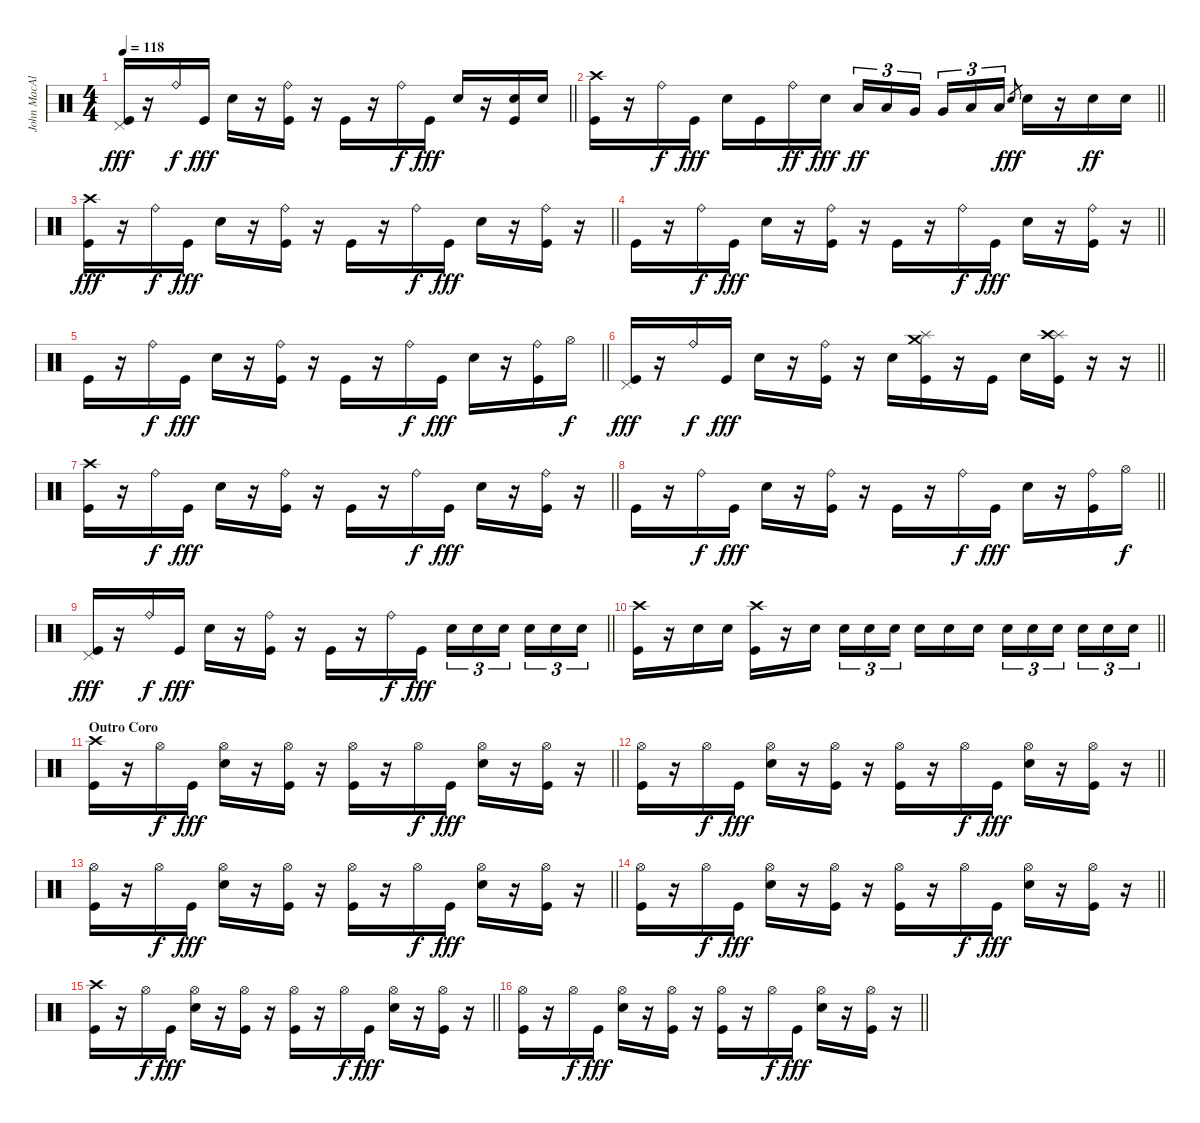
\track ("John MacAluso" "John MacAl") {instrument percussion}
\staff {score}
\articulation defaults
\ts (4 4)
\tempo 118
\clef neutral
\barLineRight lightlight
\ks c
("Pedal Hi-Hat (hit)" "Kick (hit)").16{dy fff} r.16 "Ride (bell)".16{dy f} "Kick (hit)".16{dy fff} "Electric Snare (hit)".16 r.16 ("Ride (bell)" "Kick (hit)").16 r.16 "Kick (hit)".16 r.16 "Ride (bell)".16{dy f} "Kick (hit)".16{dy fff} "Electric Snare (hit)".16 r.16 ("Electric Snare (hit)" "Kick (hit)").16 "Electric Snare (hit)".16 |
\barLineRight lightlight
("Crash high (hit)" "Kick (hit)").16 r.16 "Ride (bell)".16{dy f} "Kick (hit)".16{dy fff} "Electric Snare (hit)".16 "Kick (hit)".16 "Ride (bell)".16{dy ff} "Electric Snare (hit)".16{dy fff} "Low Tom (hit)".16{tu (3 2) dy ff} "Low Tom (hit)".16{tu (3 2)} "Very Low Tom (hit)".16{tu (3 2) beam splitsecondary} "Very Low Tom (hit)".16{tu (3 2)} "Low Floor Tom (hit)".16{tu (3 2)} "Low Floor Tom (hit)".16{tu (3 2)} "Electric Snare (hit)".8{gr dy fff} "Electric Snare (hit)".16 r.16 "Electric Snare (hit)".16{dy ff} "Electric Snare (hit)".16 |
\barLineRight lightlight
("Crash high (hit)" "Kick (hit)").16{dy fff} r.16 "Ride (bell)".16{dy f} "Kick (hit)".16{dy fff} "Electric Snare (hit)".16 r.16 ("Ride (bell)" "Kick (hit)").16 r.16 "Kick (hit)".16 r.16 "Ride (bell)".16{dy f} "Kick (hit)".16{dy fff} "Electric Snare (hit)".16 r.16 ("Ride (bell)" "Kick (hit)").16 r.16 |
\barLineRight lightlight "Kick (hit)".16
r.16 "Ride (bell)".16{dy f} "Kick (hit)".16{dy fff} "Electric Snare (hit)".16 r.16 ("Ride (bell)" "Kick (hit)").16 r.16 "Kick (hit)".16 r.16 "Ride (bell)".16{dy f} "Kick (hit)".16{dy fff} "Electric Snare (hit)".16 r.16 ("Ride (bell)" "Kick (hit)").16 r.16 |
\barLineRight lightlight "Kick (hit)".16
r.16 "Ride (bell)".16{dy f} "Kick (hit)".16{dy fff} "Electric Snare (hit)".16 r.16 ("Ride (bell)" "Kick (hit)").16 r.16 "Kick (hit)".16 r.16 "Ride (bell)".16{dy f} "Kick (hit)".16{dy fff} "Electric Snare (hit)".16 r.16 ("Ride (bell)" "Kick (hit)").16 "Hi-Hat (open)".16{dy f} |
\barLineRight lightlight
("Pedal Hi-Hat (hit)" "Kick (hit)").16{dy fff} r.16 "Ride (bell)".16{dy f} "Kick (hit)".16{dy fff} "Electric Snare (hit)".16 r.16 ("Ride (bell)" "Kick (hit)").16 r.16 "Electric Snare (hit)".16 ("Splash (hit)" "Crash medium (hit)" "Kick (hit)").16 r.16 "Kick (hit)".16 "Electric Snare (hit)".16 ("Splash (hit)" "Crash high (hit)" "Kick (hit)").16 r.16 r.16 |
\barLineRight lightlight
("Crash high (hit)" "Kick (hit)").16 r.16 "Ride (bell)".16{dy f} "Kick (hit)".16{dy fff} "Electric Snare (hit)".16 r.16 ("Ride (bell)" "Kick (hit)").16 r.16 "Kick (hit)".16 r.16 "Ride (bell)".16{dy f} "Kick (hit)".16{dy fff} "Electric Snare (hit)".16 r.16 ("Ride (bell)" "Kick (hit)").16 r.16 |
\barLineRight lightlight "Kick (hit)".16
r.16 "Ride (bell)".16{dy f} "Kick (hit)".16{dy fff} "Electric Snare (hit)".16 r.16 ("Ride (bell)" "Kick (hit)").16 r.16 "Kick (hit)".16 r.16 "Ride (bell)".16{dy f} "Kick (hit)".16{dy fff} "Electric Snare (hit)".16 r.16 ("Ride (bell)" "Kick (hit)").16 "Hi-Hat (open)".16{dy f} |
\barLineRight lightlight
("Pedal Hi-Hat (hit)" "Kick (hit)").16{dy fff} r.16 "Ride (bell)".16{dy f} "Kick (hit)".16{dy fff} "Electric Snare (hit)".16 r.16 ("Ride (bell)" "Kick (hit)").16 r.16 "Kick (hit)".16 r.16 "Ride (bell)".16{dy f} "Kick (hit)".16{dy fff} "Electric Snare (hit)".16{tu (3 2)} "Electric Snare (hit)".16{tu (3 2)} "Electric Snare (hit)".16{tu (3 2) beam splitsecondary} "Electric Snare (hit)".16{tu (3 2)} "Electric Snare (hit)".16{tu (3 2)} "Electric Snare (hit)".16{tu (3 2)} |
\barLineRight lightlight
("Crash high (hit)" "Kick (hit)").16 r.16 "Electric Snare (hit)".16 "Electric Snare (hit)".16 ("Crash high (hit)" "Kick (hit)").16 r.16 "Electric Snare (hit)".16{beam splitsecondary} "Electric Snare (hit)".16{tu (3 2)} "Electric Snare (hit)".16{tu (3 2)} "Electric Snare (hit)".16{tu (3 2) beam splitsecondary} "Electric Snare (hit)".16 "Electric Snare (hit)".16 "Electric Snare (hit)".16 "Electric Snare (hit)".16{tu (3 2)} "Electric Snare (hit)".16{tu (3 2)} "Electric Snare (hit)".16{tu (3 2) beam splitsecondary} "Electric Snare (hit)".16{tu (3 2)} "Electric Snare (hit)".16{tu (3 2)} "Electric Snare (hit)".16{tu (3 2)} |
\section ("" "Outro Coro")
\barLineRight lightlight
("Crash high (hit)" "Kick (hit)").16 r.16 "Hi-Hat (open)".16{dy f} "Kick (hit)".16{dy fff} ("Hi-Hat (open)" "Electric Snare (hit)").16 r.16 ("Hi-Hat (open)" "Kick (hit)").16 r.16 ("Hi-Hat (open)" "Kick (hit)").16 r.16 "Hi-Hat (open)".16{dy f} "Kick (hit)".16{dy fff} ("Hi-Hat (open)" "Electric Snare (hit)").16 r.16 ("Hi-Hat (open)" "Kick (hit)").16 r.16 |
\barLineRight lightlight
("Hi-Hat (open)" "Kick (hit)").16 r.16 "Hi-Hat (open)".16{dy f} "Kick (hit)".16{dy fff} ("Hi-Hat (open)" "Electric Snare (hit)").16 r.16 ("Hi-Hat (open)" "Kick (hit)").16 r.16 ("Hi-Hat (open)" "Kick (hit)").16 r.16 "Hi-Hat (open)".16{dy f} "Kick (hit)".16{dy fff} ("Hi-Hat (open)" "Electric Snare (hit)").16 r.16 ("Hi-Hat (open)" "Kick (hit)").16 r.16 |
\barLineRight lightlight
("Hi-Hat (open)" "Kick (hit)").16 r.16 "Hi-Hat (open)".16{dy f} "Kick (hit)".16{dy fff} ("Hi-Hat (open)" "Electric Snare (hit)").16 r.16 ("Hi-Hat (open)" "Kick (hit)").16 r.16 ("Hi-Hat (open)" "Kick (hit)").16 r.16 "Hi-Hat (open)".16{dy f} "Kick (hit)".16{dy fff} ("Hi-Hat (open)" "Electric Snare (hit)").16 r.16 ("Hi-Hat (open)" "Kick (hit)").16 r.16 |
\barLineRight lightlight
("Hi-Hat (open)" "Kick (hit)").16 r.16 "Hi-Hat (open)".16{dy f} "Kick (hit)".16{dy fff} ("Hi-Hat (open)" "Electric Snare (hit)").16 r.16 ("Hi-Hat (open)" "Kick (hit)").16 r.16 ("Hi-Hat (open)" "Kick (hit)").16 r.16 "Hi-Hat (open)".16{dy f} "Kick (hit)".16{dy fff} ("Hi-Hat (open)" "Electric Snare (hit)").16 r.16 ("Hi-Hat (open)" "Kick (hit)").16 r.16 |
\barLineRight lightlight
("Crash high (hit)" "Kick (hit)").16 r.16 "Hi-Hat (open)".16{dy f} "Kick (hit)".16{dy fff} ("Hi-Hat (open)" "Electric Snare (hit)").16 r.16 ("Hi-Hat (open)" "Kick (hit)").16 r.16 ("Hi-Hat (open)" "Kick (hit)").16 r.16 "Hi-Hat (open)".16{dy f} "Kick (hit)".16{dy fff} ("Hi-Hat (open)" "Electric Snare (hit)").16 r.16 ("Hi-Hat (open)" "Kick (hit)").16 r.16 |
\barLineRight lightlight
("Hi-Hat (open)" "Kick (hit)").16 r.16 "Hi-Hat (open)".16{dy f} "Kick (hit)".16{dy fff} ("Hi-Hat (open)" "Electric Snare (hit)").16 r.16 ("Hi-Hat (open)" "Kick (hit)").16 r.16 ("Hi-Hat (open)" "Kick (hit)").16 r.16 "Hi-Hat (open)".16{dy f} "Kick (hit)".16{dy fff} ("Hi-Hat (open)" "Electric Snare (hit)").16 r.16 ("Hi-Hat (open)" "Kick (hit)").16 r.16
